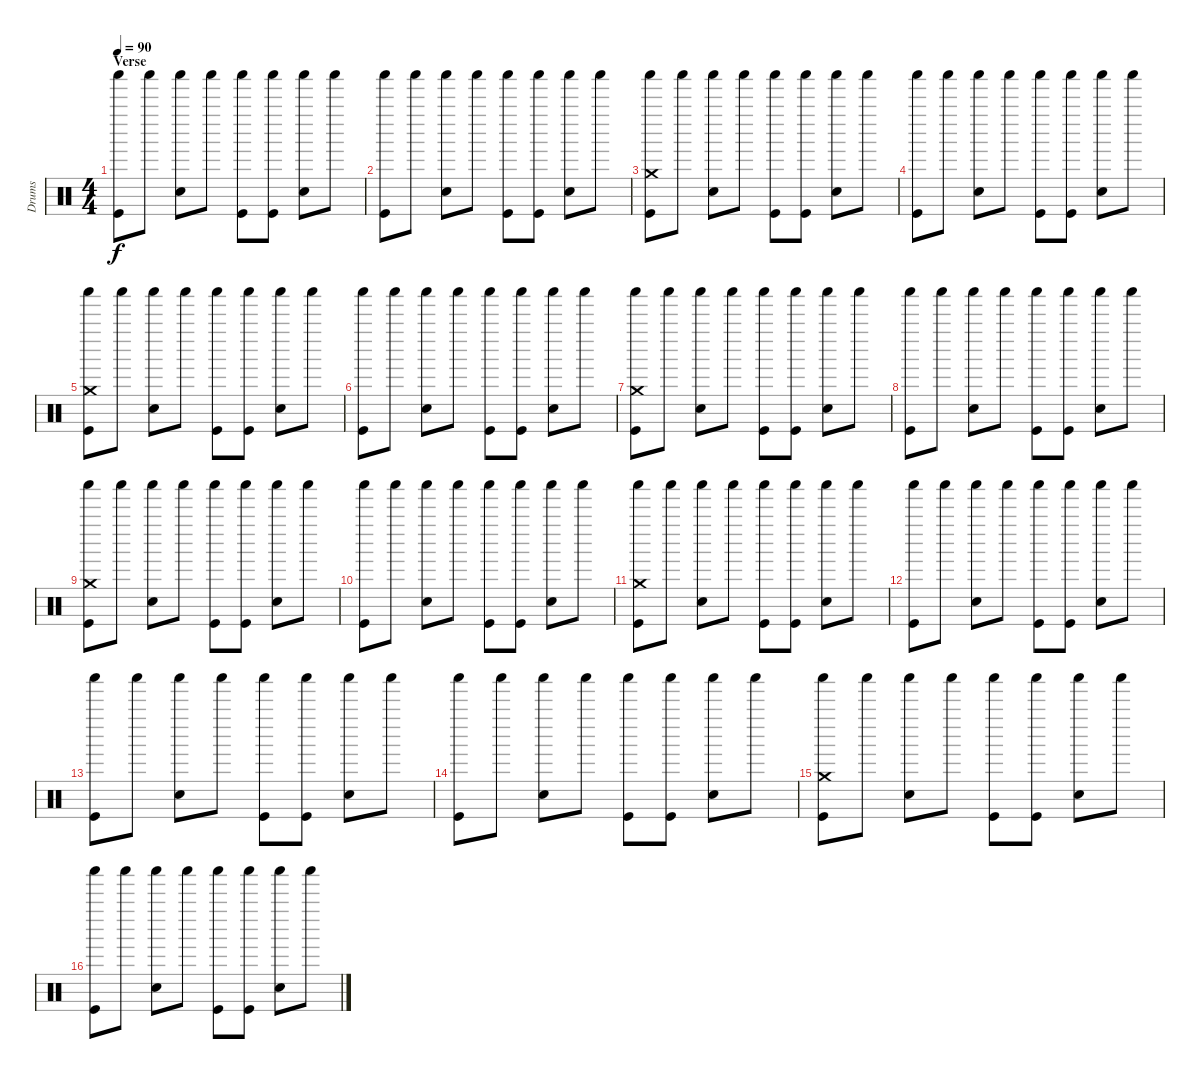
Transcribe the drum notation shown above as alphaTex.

\track ("Drums" "Drums") {instrument percussion}
\staff {score}
\articulation defaults
\ts (4 4)
\section ("" "Verse")
\tempo 90
\clef neutral
\ks c
("Shaker (hit)" "Kick (hit)").8{dy f} "Shaker (hit)".8 ("Shaker (hit)" "Snare (hit) 2").8 "Shaker (hit)".8 ("Shaker (hit)" "Kick (hit)").8 ("Shaker (hit)" "Kick (hit)").8 ("Shaker (hit)" "Snare (hit) 2").8 "Shaker (hit)".8 |
("Shaker (hit)" "Kick (hit)").8 "Shaker (hit)".8 ("Shaker (hit)" "Snare (hit) 2").8 "Shaker (hit)".8 ("Shaker (hit)" "Kick (hit)").8 ("Shaker (hit)" "Kick (hit)").8 ("Shaker (hit)" "Snare (hit) 2").8 "Shaker (hit)".8 |
("Shaker (hit)" "Crash medium (hit)" "Kick (hit)").8 "Shaker (hit)".8 ("Shaker (hit)" "Snare (hit) 2").8 "Shaker (hit)".8 ("Shaker (hit)" "Kick (hit)").8 ("Shaker (hit)" "Kick (hit)").8 ("Shaker (hit)" "Snare (hit) 2").8 "Shaker (hit)".8 |
("Shaker (hit)" "Kick (hit)").8 "Shaker (hit)".8 ("Shaker (hit)" "Snare (hit) 2").8 "Shaker (hit)".8 ("Shaker (hit)" "Kick (hit)").8 ("Shaker (hit)" "Kick (hit)").8 ("Shaker (hit)" "Snare (hit) 2").8 "Shaker (hit)".8 |
("Shaker (hit)" "Crash medium (hit)" "Kick (hit)").8 "Shaker (hit)".8 ("Shaker (hit)" "Snare (hit) 2").8 "Shaker (hit)".8 ("Shaker (hit)" "Kick (hit)").8 ("Shaker (hit)" "Kick (hit)").8 ("Shaker (hit)" "Snare (hit) 2").8 "Shaker (hit)".8 |
("Shaker (hit)" "Kick (hit)").8 "Shaker (hit)".8 ("Shaker (hit)" "Snare (hit) 2").8 "Shaker (hit)".8 ("Shaker (hit)" "Kick (hit)").8 ("Shaker (hit)" "Kick (hit)").8 ("Shaker (hit)" "Snare (hit) 2").8 "Shaker (hit)".8 |
("Shaker (hit)" "Crash medium (hit)" "Kick (hit)").8 "Shaker (hit)".8 ("Shaker (hit)" "Snare (hit) 2").8 "Shaker (hit)".8 ("Shaker (hit)" "Kick (hit)").8 ("Shaker (hit)" "Kick (hit)").8 ("Shaker (hit)" "Snare (hit) 2").8 "Shaker (hit)".8 |
("Shaker (hit)" "Kick (hit)").8 "Shaker (hit)".8 ("Shaker (hit)" "Snare (hit) 2").8 "Shaker (hit)".8 ("Shaker (hit)" "Kick (hit)").8 ("Shaker (hit)" "Kick (hit)").8 ("Shaker (hit)" "Snare (hit) 2").8 "Shaker (hit)".8 |
("Shaker (hit)" "Crash medium (hit)" "Kick (hit)").8 "Shaker (hit)".8 ("Shaker (hit)" "Snare (hit) 2").8 "Shaker (hit)".8 ("Shaker (hit)" "Kick (hit)").8 ("Shaker (hit)" "Kick (hit)").8 ("Shaker (hit)" "Snare (hit) 2").8 "Shaker (hit)".8 |
("Shaker (hit)" "Kick (hit)").8 "Shaker (hit)".8 ("Shaker (hit)" "Snare (hit) 2").8 "Shaker (hit)".8 ("Shaker (hit)" "Kick (hit)").8 ("Shaker (hit)" "Kick (hit)").8 ("Shaker (hit)" "Snare (hit) 2").8 "Shaker (hit)".8 |
("Shaker (hit)" "Crash medium (hit)" "Kick (hit)").8 "Shaker (hit)".8 ("Shaker (hit)" "Snare (hit) 2").8 "Shaker (hit)".8 ("Shaker (hit)" "Kick (hit)").8 ("Shaker (hit)" "Kick (hit)").8 ("Shaker (hit)" "Snare (hit) 2").8 "Shaker (hit)".8 |
("Shaker (hit)" "Kick (hit)").8 "Shaker (hit)".8 ("Shaker (hit)" "Snare (hit) 2").8 "Shaker (hit)".8 ("Shaker (hit)" "Kick (hit)").8 ("Shaker (hit)" "Kick (hit)").8 ("Shaker (hit)" "Snare (hit) 2").8 "Shaker (hit)".8 |
("Shaker (hit)" "Kick (hit)").8 "Shaker (hit)".8 ("Shaker (hit)" "Snare (hit) 2").8 "Shaker (hit)".8 ("Shaker (hit)" "Kick (hit)").8 ("Shaker (hit)" "Kick (hit)").8 ("Shaker (hit)" "Snare (hit) 2").8 "Shaker (hit)".8 |
("Shaker (hit)" "Kick (hit)").8 "Shaker (hit)".8 ("Shaker (hit)" "Snare (hit) 2").8 "Shaker (hit)".8 ("Shaker (hit)" "Kick (hit)").8 ("Shaker (hit)" "Kick (hit)").8 ("Shaker (hit)" "Snare (hit) 2").8 "Shaker (hit)".8 |
("Shaker (hit)" "Crash medium (hit)" "Kick (hit)").8 "Shaker (hit)".8 ("Shaker (hit)" "Snare (hit) 2").8 "Shaker (hit)".8 ("Shaker (hit)" "Kick (hit)").8 ("Shaker (hit)" "Kick (hit)").8 ("Shaker (hit)" "Snare (hit) 2").8 "Shaker (hit)".8 |
("Shaker (hit)" "Kick (hit)").8 "Shaker (hit)".8 ("Shaker (hit)" "Snare (hit) 2").8 "Shaker (hit)".8 ("Shaker (hit)" "Kick (hit)").8 ("Shaker (hit)" "Kick (hit)").8 ("Shaker (hit)" "Snare (hit) 2").8 "Shaker (hit)".8
